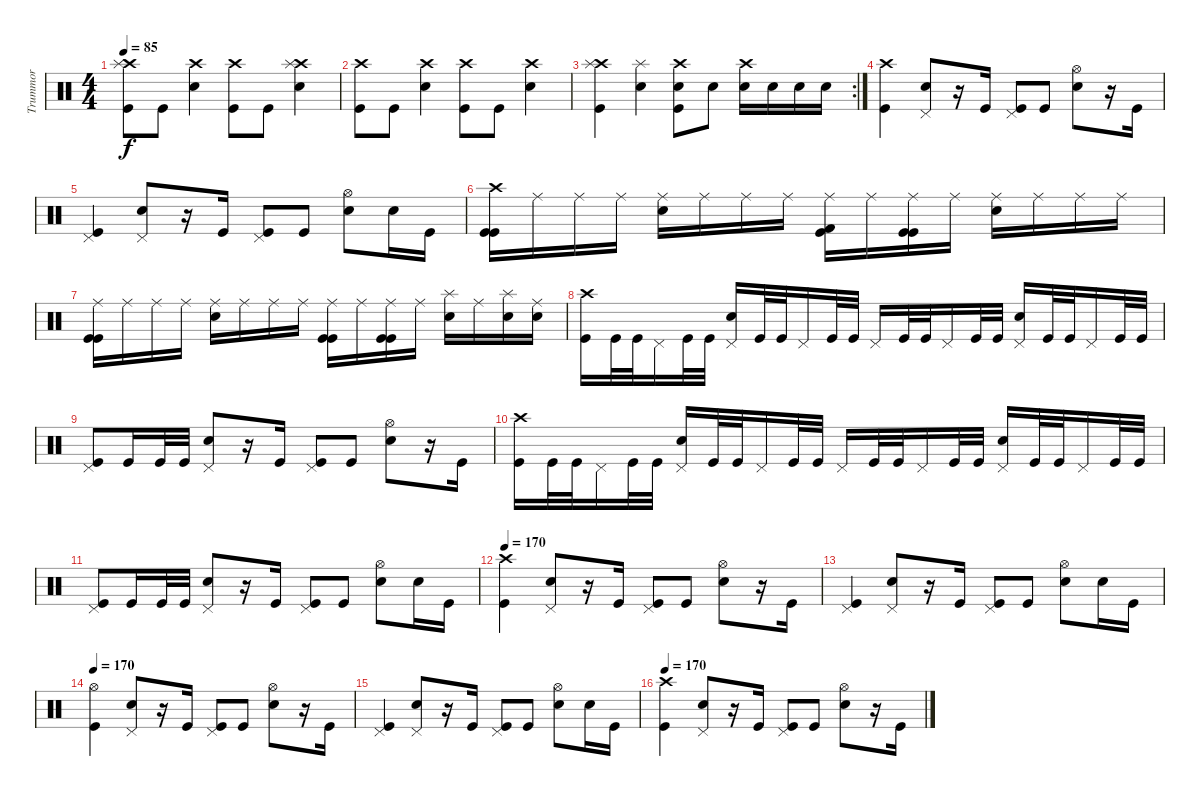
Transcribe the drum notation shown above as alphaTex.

\track ("Trummor" "Trummor") {instrument percussion}
\staff {score}
\articulation defaults
\ts (4 4)
\tempo 85
\clef neutral
\ks c
("Crash high (hit)" "Splash (hit)" "Kick (hit)").8{dy f} "Kick (hit)".8 ("Crash high (hit)" "Snare (hit) 2").4 ("Crash high (hit)" "Kick (hit)").8 "Kick (hit)".8 ("Crash high (hit)" "Splash (hit)" "Snare (hit) 2").4 |
("Crash high (hit)" "Kick (hit)").8 "Kick (hit)".8 ("Crash high (hit)" "Snare (hit) 2").4 ("Crash high (hit)" "Kick (hit)").8 "Kick (hit)".8 ("Crash high (hit)" "Snare (hit) 2").4 |
\rc 2
("Crash high (hit)" "Splash (hit)" "Kick (hit)").4 ("Splash (hit)" "Snare (hit) 2").4 ("Crash high (hit)" "Snare (hit) 2" "Kick (hit)").8 "Snare (hit) 2".8 ("Crash high (hit)" "Snare (hit) 2").16 "Snare (hit) 2".16 "Snare (hit) 2".16 "Snare (hit) 2".16 |
("Crash high (hit)" "Kick (hit)").4 ("Pedal Hi-Hat (hit)" "Snare (hit) 2").8 r.16 "Kick (hit)".16 ("Pedal Hi-Hat (hit)" "Kick (hit)").8 "Kick (hit)".8 ("Hi-Hat (open)" "Snare (hit) 2").8 r.16 "Kick (hit)".16 |
("Pedal Hi-Hat (hit)" "Kick (hit)").4 ("Pedal Hi-Hat (hit)" "Snare (hit) 2").8 r.16 "Kick (hit)".16 ("Pedal Hi-Hat (hit)" "Kick (hit)").8 "Kick (hit)".8 ("Hi-Hat (open)" "Snare (hit) 2").8 "Snare (hit) 2".16 "Kick (hit)".16 |
("Crash high (hit)" "Kick (hit)" "Kick (hit)").16 "Ride (middle)".16 "Ride (middle)".16 "Ride (middle)".16 ("Ride (middle)" "Snare (hit) 2").16 "Ride (middle)".16 "Ride (middle)".16 "Ride (middle)".16 ("Ride (middle)" "Kick (hit) 2" "Kick (hit)").16 "Ride (middle)".16 ("Ride (middle)" "Kick (hit)" "Kick (hit)").16 "Ride (middle)".16 ("Ride (middle)" "Snare (hit) 2").16 "Ride (middle)".16 "Ride (middle)".16 "Ride (middle)".16 |
("Ride (middle)" "Kick (hit)" "Kick (hit)").16 "Ride (middle)".16 "Ride (middle)".16 "Ride (middle)".16 ("Ride (middle)" "Snare (hit) 2").16 "Ride (middle)".16 "Ride (middle)".16 "Ride (middle)".16 ("Ride (middle)" "Kick (hit)" "Kick (hit)").16 "Ride (middle)".16 ("Ride (middle)" "Kick (hit)" "Kick (hit)").16 "Ride (middle)".16 ("Splash (hit)" "Snare (hit) 2").16 "Ride (middle)".16 ("Splash (hit)" "Snare (hit) 2").16 ("Ride (middle)" "Snare (hit) 2").16 |
("Crash high (hit)" "Kick (hit)").16 "Kick (hit)".32 "Kick (hit)".32 "Pedal Hi-Hat (hit)".16 "Kick (hit)".32 "Kick (hit)".32 ("Pedal Hi-Hat (hit)" "Snare (hit) 2").16 "Kick (hit)".32 "Kick (hit)".32 "Pedal Hi-Hat (hit)".16 "Kick (hit)".32 "Kick (hit)".32 "Pedal Hi-Hat (hit)".16 "Kick (hit)".32 "Kick (hit)".32 "Pedal Hi-Hat (hit)".16 "Kick (hit)".32 "Kick (hit)".32 ("Pedal Hi-Hat (hit)" "Snare (hit) 2").16 "Kick (hit)".32 "Kick (hit)".32 "Pedal Hi-Hat (hit)".16 "Kick (hit)".32 "Kick (hit)".32 |
("Pedal Hi-Hat (hit)" "Kick (hit)").8 "Kick (hit)".16 "Kick (hit)".32 "Kick (hit)".32 ("Pedal Hi-Hat (hit)" "Snare (hit) 2").8 r.16 "Kick (hit)".16 ("Pedal Hi-Hat (hit)" "Kick (hit)").8 "Kick (hit)".8 ("Hi-Hat (open)" "Snare (hit) 2").8 r.16 "Kick (hit)".16 |
("Crash high (hit)" "Kick (hit)").16 "Kick (hit)".32 "Kick (hit)".32 "Pedal Hi-Hat (hit)".16 "Kick (hit)".32 "Kick (hit)".32 ("Pedal Hi-Hat (hit)" "Snare (hit) 2").16 "Kick (hit)".32 "Kick (hit)".32 "Pedal Hi-Hat (hit)".16 "Kick (hit)".32 "Kick (hit)".32 "Pedal Hi-Hat (hit)".16 "Kick (hit)".32 "Kick (hit)".32 "Pedal Hi-Hat (hit)".16 "Kick (hit)".32 "Kick (hit)".32 ("Pedal Hi-Hat (hit)" "Snare (hit) 2").16 "Kick (hit)".32 "Kick (hit)".32 "Pedal Hi-Hat (hit)".16 "Kick (hit)".32 "Kick (hit)".32 |
("Pedal Hi-Hat (hit)" "Kick (hit)").8 "Kick (hit)".16 "Kick (hit)".32 "Kick (hit)".32 ("Pedal Hi-Hat (hit)" "Snare (hit) 2").8 r.16 "Kick (hit)".16 ("Pedal Hi-Hat (hit)" "Kick (hit)").8 "Kick (hit)".8 ("Hi-Hat (open)" "Snare (hit) 2").8 "Snare (hit) 2".16 "Kick (hit)".16 |
\tempo 170
("Crash high (hit)" "Kick (hit)").4 ("Pedal Hi-Hat (hit)" "Snare (hit) 2").8 r.16 "Kick (hit)".16 ("Pedal Hi-Hat (hit)" "Kick (hit)").8 "Kick (hit)".8 ("Hi-Hat (open)" "Snare (hit) 2").8 r.16 "Kick (hit)".16 |
("Pedal Hi-Hat (hit)" "Kick (hit)").4 ("Pedal Hi-Hat (hit)" "Snare (hit) 2").8 r.16 "Kick (hit)".16 ("Pedal Hi-Hat (hit)" "Kick (hit)").8 "Kick (hit)".8 ("Hi-Hat (open)" "Snare (hit) 2").8 "Snare (hit) 2".16 "Kick (hit)".16 |
\tempo 170
("Hi-Hat (open)" "Kick (hit)").4 ("Pedal Hi-Hat (hit)" "Snare (hit) 2").8 r.16 "Kick (hit)".16 ("Pedal Hi-Hat (hit)" "Kick (hit)").8 "Kick (hit)".8 ("Hi-Hat (open)" "Snare (hit) 2").8 r.16 "Kick (hit)".16 |
("Pedal Hi-Hat (hit)" "Kick (hit)").4 ("Pedal Hi-Hat (hit)" "Snare (hit) 2").8 r.16 "Kick (hit)".16 ("Pedal Hi-Hat (hit)" "Kick (hit)").8 "Kick (hit)".8 ("Hi-Hat (open)" "Snare (hit) 2").8 "Snare (hit) 2".16 "Kick (hit)".16 |
\tempo 170
("Crash high (hit)" "Kick (hit)").4 ("Pedal Hi-Hat (hit)" "Snare (hit) 2").8 r.16 "Kick (hit)".16 ("Pedal Hi-Hat (hit)" "Kick (hit)").8 "Kick (hit)".8 ("Hi-Hat (open)" "Snare (hit) 2").8 r.16 "Kick (hit)".16
